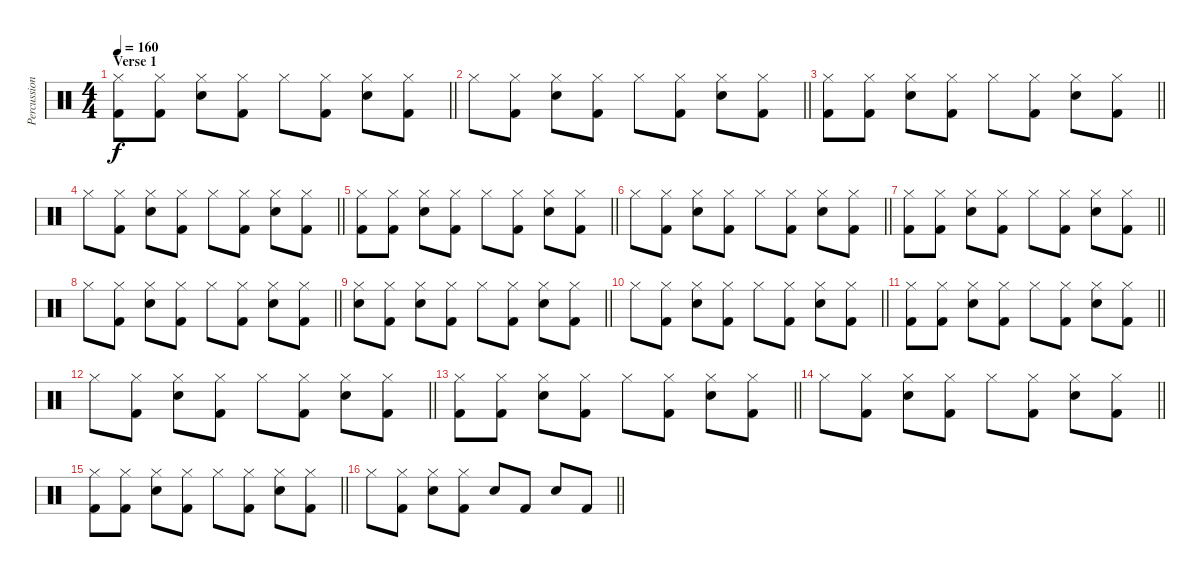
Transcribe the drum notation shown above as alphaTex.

\track ("Percussion" "Percussion") {instrument percussion}
\staff {score}
\articulation defaults
\ts (4 4)
\section ("" "Verse 1")
\tempo 160
\clef neutral
\barLineRight lightlight
\ks c
("Hi-Hat (closed)" "Kick (hit) 2").8{dy f} ("Hi-Hat (closed)" "Kick (hit) 2").8 ("Hi-Hat (closed)" "Electric Snare (hit)").8 ("Hi-Hat (closed)" "Kick (hit) 2").8 "Hi-Hat (closed)".8 ("Hi-Hat (closed)" "Kick (hit) 2").8 ("Hi-Hat (closed)" "Electric Snare (hit)").8 ("Hi-Hat (closed)" "Kick (hit) 2").8 |
\barLineRight lightlight "Hi-Hat (closed)".8
("Hi-Hat (closed)" "Kick (hit) 2").8 ("Hi-Hat (closed)" "Electric Snare (hit)").8 ("Hi-Hat (closed)" "Kick (hit) 2").8 "Hi-Hat (closed)".8 ("Hi-Hat (closed)" "Kick (hit) 2").8 ("Hi-Hat (closed)" "Electric Snare (hit)").8 ("Hi-Hat (closed)" "Kick (hit) 2").8 |
\barLineRight lightlight
("Hi-Hat (closed)" "Kick (hit) 2").8 ("Hi-Hat (closed)" "Kick (hit) 2").8 ("Hi-Hat (closed)" "Electric Snare (hit)").8 ("Hi-Hat (closed)" "Kick (hit) 2").8 "Hi-Hat (closed)".8 ("Hi-Hat (closed)" "Kick (hit) 2").8 ("Hi-Hat (closed)" "Electric Snare (hit)").8 ("Hi-Hat (closed)" "Kick (hit) 2").8 |
\barLineRight lightlight "Hi-Hat (closed)".8
("Hi-Hat (closed)" "Kick (hit) 2").8 ("Hi-Hat (closed)" "Electric Snare (hit)").8 ("Hi-Hat (closed)" "Kick (hit) 2").8 "Hi-Hat (closed)".8 ("Hi-Hat (closed)" "Kick (hit) 2").8 ("Hi-Hat (closed)" "Electric Snare (hit)").8 ("Hi-Hat (closed)" "Kick (hit) 2").8 |
\barLineRight lightlight
("Hi-Hat (closed)" "Kick (hit) 2").8 ("Hi-Hat (closed)" "Kick (hit) 2").8 ("Hi-Hat (closed)" "Electric Snare (hit)").8 ("Hi-Hat (closed)" "Kick (hit) 2").8 "Hi-Hat (closed)".8 ("Hi-Hat (closed)" "Kick (hit) 2").8 ("Hi-Hat (closed)" "Electric Snare (hit)").8 ("Hi-Hat (closed)" "Kick (hit) 2").8 |
\barLineRight lightlight "Hi-Hat (closed)".8
("Hi-Hat (closed)" "Kick (hit) 2").8 ("Hi-Hat (closed)" "Electric Snare (hit)").8 ("Hi-Hat (closed)" "Kick (hit) 2").8 "Hi-Hat (closed)".8 ("Hi-Hat (closed)" "Kick (hit) 2").8 ("Hi-Hat (closed)" "Electric Snare (hit)").8 ("Hi-Hat (closed)" "Kick (hit) 2").8 |
\barLineRight lightlight
("Hi-Hat (closed)" "Kick (hit) 2").8 ("Hi-Hat (closed)" "Kick (hit) 2").8 ("Hi-Hat (closed)" "Electric Snare (hit)").8 ("Hi-Hat (closed)" "Kick (hit) 2").8 "Hi-Hat (closed)".8 ("Hi-Hat (closed)" "Kick (hit) 2").8 ("Hi-Hat (closed)" "Electric Snare (hit)").8 ("Hi-Hat (closed)" "Kick (hit) 2").8 |
\barLineRight lightlight "Hi-Hat (closed)".8
("Hi-Hat (closed)" "Kick (hit) 2").8 ("Hi-Hat (closed)" "Electric Snare (hit)").8 ("Hi-Hat (closed)" "Kick (hit) 2").8 "Hi-Hat (closed)".8 ("Hi-Hat (closed)" "Kick (hit) 2").8 ("Hi-Hat (closed)" "Electric Snare (hit)").8 ("Hi-Hat (closed)" "Kick (hit) 2").8 |
\barLineRight lightlight
("Hi-Hat (closed)" "Electric Snare (hit)").8 ("Hi-Hat (closed)" "Kick (hit) 2").8 ("Hi-Hat (closed)" "Electric Snare (hit)").8 ("Hi-Hat (closed)" "Kick (hit) 2").8 "Hi-Hat (closed)".8 ("Hi-Hat (closed)" "Kick (hit) 2").8 ("Hi-Hat (closed)" "Electric Snare (hit)").8 ("Hi-Hat (closed)" "Kick (hit) 2").8 |
\barLineRight lightlight "Hi-Hat (closed)".8
("Hi-Hat (closed)" "Kick (hit) 2").8 ("Hi-Hat (closed)" "Electric Snare (hit)").8 ("Hi-Hat (closed)" "Kick (hit) 2").8 "Hi-Hat (closed)".8 ("Hi-Hat (closed)" "Kick (hit) 2").8 ("Hi-Hat (closed)" "Electric Snare (hit)").8 ("Hi-Hat (closed)" "Kick (hit) 2").8 |
\barLineRight lightlight
("Hi-Hat (closed)" "Kick (hit) 2").8 ("Hi-Hat (closed)" "Kick (hit) 2").8 ("Hi-Hat (closed)" "Electric Snare (hit)").8 ("Hi-Hat (closed)" "Kick (hit) 2").8 "Hi-Hat (closed)".8 ("Hi-Hat (closed)" "Kick (hit) 2").8 ("Hi-Hat (closed)" "Electric Snare (hit)").8 ("Hi-Hat (closed)" "Kick (hit) 2").8 |
\barLineRight lightlight "Hi-Hat (closed)".8
("Hi-Hat (closed)" "Kick (hit) 2").8 ("Hi-Hat (closed)" "Electric Snare (hit)").8 ("Hi-Hat (closed)" "Kick (hit) 2").8 "Hi-Hat (closed)".8 ("Hi-Hat (closed)" "Kick (hit) 2").8 ("Hi-Hat (closed)" "Electric Snare (hit)").8 ("Hi-Hat (closed)" "Kick (hit) 2").8 |
\barLineRight lightlight
("Hi-Hat (closed)" "Kick (hit) 2").8 ("Hi-Hat (closed)" "Kick (hit) 2").8 ("Hi-Hat (closed)" "Electric Snare (hit)").8 ("Hi-Hat (closed)" "Kick (hit) 2").8 "Hi-Hat (closed)".8 ("Hi-Hat (closed)" "Kick (hit) 2").8 ("Hi-Hat (closed)" "Electric Snare (hit)").8 ("Hi-Hat (closed)" "Kick (hit) 2").8 |
\barLineRight lightlight "Hi-Hat (closed)".8
("Hi-Hat (closed)" "Kick (hit) 2").8 ("Hi-Hat (closed)" "Electric Snare (hit)").8 ("Hi-Hat (closed)" "Kick (hit) 2").8 "Hi-Hat (closed)".8 ("Hi-Hat (closed)" "Kick (hit) 2").8 ("Hi-Hat (closed)" "Electric Snare (hit)").8 ("Hi-Hat (closed)" "Kick (hit) 2").8 |
\barLineRight lightlight
("Hi-Hat (closed)" "Kick (hit) 2").8 ("Hi-Hat (closed)" "Kick (hit) 2").8 ("Hi-Hat (closed)" "Electric Snare (hit)").8 ("Hi-Hat (closed)" "Kick (hit) 2").8 "Hi-Hat (closed)".8 ("Hi-Hat (closed)" "Kick (hit) 2").8 ("Hi-Hat (closed)" "Electric Snare (hit)").8 ("Hi-Hat (closed)" "Kick (hit) 2").8 |
\barLineRight lightlight "Hi-Hat (closed)".8
("Hi-Hat (closed)" "Kick (hit) 2").8 ("Hi-Hat (closed)" "Electric Snare (hit)").8 ("Hi-Hat (closed)" "Kick (hit) 2").8 "Electric Snare (hit)".8 "Kick (hit) 2".8 "Electric Snare (hit)".8 "Kick (hit) 2".8
